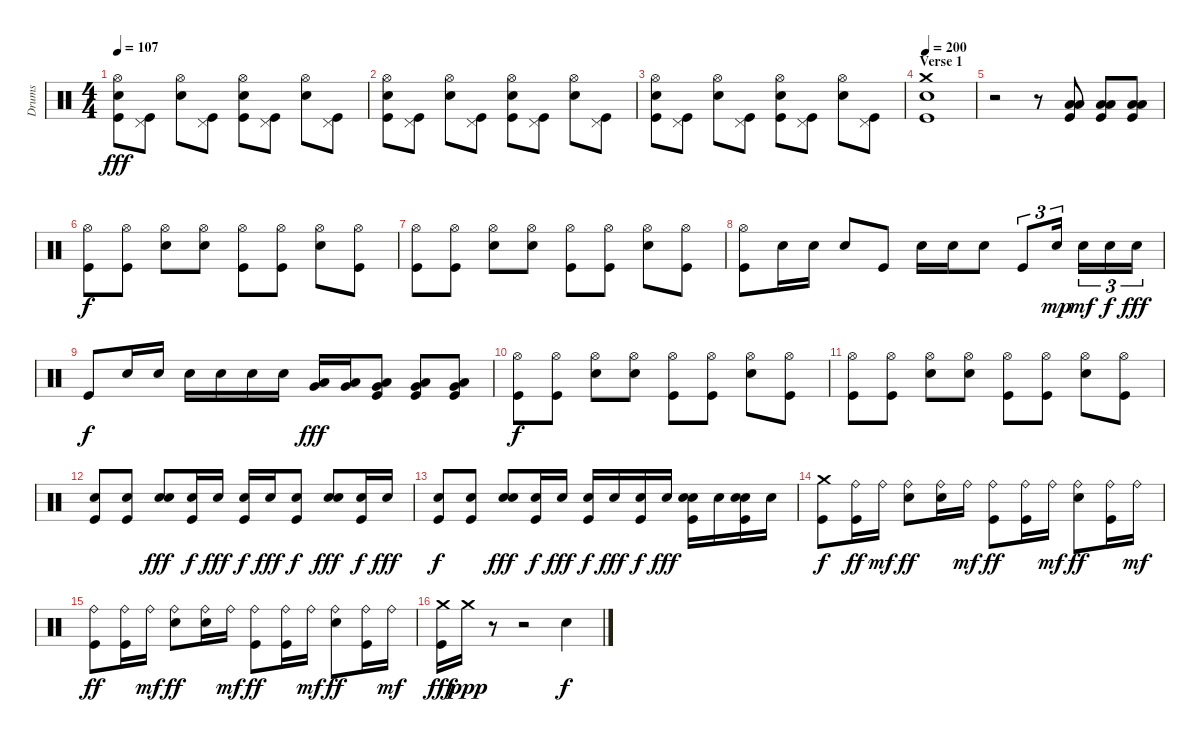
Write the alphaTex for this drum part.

\track ("Drums" "Drums") {instrument percussion}
\staff {score}
\articulation defaults
\ts (4 4)
\tempo 107
\clef neutral
\ks c
("Hi-Hat (open)" "Electric Snare (hit)" "Kick (hit)").8{dy fff} ("Pedal Hi-Hat (hit)" "Kick (hit)").8 ("Hi-Hat (open)" "Electric Snare (hit)").8 ("Pedal Hi-Hat (hit)" "Kick (hit)").8 ("Hi-Hat (open)" "Electric Snare (hit)" "Kick (hit)").8 ("Pedal Hi-Hat (hit)" "Kick (hit)").8 ("Hi-Hat (open)" "Electric Snare (hit)").8 ("Pedal Hi-Hat (hit)" "Kick (hit)").8 |
("Hi-Hat (open)" "Electric Snare (hit)" "Kick (hit)").8 ("Pedal Hi-Hat (hit)" "Kick (hit)").8 ("Hi-Hat (open)" "Electric Snare (hit)").8 ("Pedal Hi-Hat (hit)" "Kick (hit)").8 ("Hi-Hat (open)" "Electric Snare (hit)" "Kick (hit)").8 ("Pedal Hi-Hat (hit)" "Kick (hit)").8 ("Hi-Hat (open)" "Electric Snare (hit)").8 ("Pedal Hi-Hat (hit)" "Kick (hit)").8 |
("Hi-Hat (open)" "Electric Snare (hit)" "Kick (hit)").8 ("Pedal Hi-Hat (hit)" "Kick (hit)").8 ("Hi-Hat (open)" "Electric Snare (hit)").8 ("Pedal Hi-Hat (hit)" "Kick (hit)").8 ("Hi-Hat (open)" "Electric Snare (hit)" "Kick (hit)").8 ("Pedal Hi-Hat (hit)" "Kick (hit)").8 ("Hi-Hat (open)" "Electric Snare (hit)").8 ("Pedal Hi-Hat (hit)" "Kick (hit)").8 |
\section ("" "Verse 1")
\tempo 200
("Crash medium (hit)" "Electric Snare (hit)" "Kick (hit)").1 |
r.2 r.8 ("Low Tom (hit)" "Low Floor Tom (hit)" "Kick (hit)").8 ("Low Tom (hit)" "Low Floor Tom (hit)" "Kick (hit)").8 ("Low Tom (hit)" "Low Floor Tom (hit)" "Kick (hit)").8 |
("Hi-Hat (open)" "Kick (hit)").8{dy f} ("Hi-Hat (open)" "Kick (hit)").8 ("Hi-Hat (open)" "Electric Snare (hit)").8 ("Hi-Hat (open)" "Electric Snare (hit)").8 ("Hi-Hat (open)" "Kick (hit)").8 ("Hi-Hat (open)" "Kick (hit)").8 ("Hi-Hat (open)" "Electric Snare (hit)").8 ("Hi-Hat (open)" "Kick (hit)").8 |
("Hi-Hat (open)" "Kick (hit)").8 ("Hi-Hat (open)" "Kick (hit)").8 ("Hi-Hat (open)" "Electric Snare (hit)").8 ("Hi-Hat (open)" "Electric Snare (hit)").8 ("Hi-Hat (open)" "Kick (hit)").8 ("Hi-Hat (open)" "Kick (hit)").8 ("Hi-Hat (open)" "Electric Snare (hit)").8 ("Hi-Hat (open)" "Kick (hit)").8 |
("Hi-Hat (open)" "Kick (hit)").8 "Electric Snare (hit)".16 "Electric Snare (hit)".16 "Electric Snare (hit)".8 "Kick (hit)".8 "Electric Snare (hit)".16 "Electric Snare (hit)".16 "Electric Snare (hit)".8 "Kick (hit)".8{tu (3 2)} "Electric Snare (hit)".16{tu (3 2) dy mp} "Electric Snare (hit)".16{tu (3 2) dy mf} "Electric Snare (hit)".16{tu (3 2) dy f} "Electric Snare (hit)".16{tu (3 2) dy fff} |
"Kick (hit)".8{dy f} "Electric Snare (hit)".16 "Electric Snare (hit)".16 "Electric Snare (hit)".16 "Electric Snare (hit)".16 "Electric Snare (hit)".16 "Electric Snare (hit)".16 ("Low Tom (hit)" "Very Low Tom (hit)").16{dy fff} ("Low Tom (hit)" "Very Low Tom (hit)").16 ("Low Tom (hit)" "Very Low Tom (hit)" "Kick (hit)").8 ("Low Tom (hit)" "Very Low Tom (hit)" "Kick (hit)").8 ("Low Tom (hit)" "Very Low Tom (hit)" "Kick (hit)").8 |
("Hi-Hat (open)" "Kick (hit)").8{dy f} ("Hi-Hat (open)" "Kick (hit)").8 ("Hi-Hat (open)" "Electric Snare (hit)").8 ("Hi-Hat (open)" "Electric Snare (hit)").8 ("Hi-Hat (open)" "Kick (hit)").8 ("Hi-Hat (open)" "Kick (hit)").8 ("Hi-Hat (open)" "Electric Snare (hit)").8 ("Hi-Hat (open)" "Kick (hit)").8 |
("Hi-Hat (open)" "Kick (hit)").8 ("Hi-Hat (open)" "Kick (hit)").8 ("Hi-Hat (open)" "Electric Snare (hit)").8 ("Hi-Hat (open)" "Electric Snare (hit)").8 ("Hi-Hat (open)" "Kick (hit)").8 ("Hi-Hat (open)" "Kick (hit)").8 ("Hi-Hat (open)" "Electric Snare (hit)").8 ("Hi-Hat (open)" "Kick (hit)").8 |
("Snare (hit) 2" "Kick (hit)").8 ("Snare (hit) 2" "Kick (hit)").8 ("Snare (hit) 2" "Electric Snare (hit)").8{dy fff} ("Snare (hit) 2" "Kick (hit)").16{dy f} "Electric Snare (hit)".16{dy fff} ("Snare (hit) 2" "Kick (hit)").16{dy f} "Electric Snare (hit)".16{dy fff} ("Snare (hit) 2" "Kick (hit)").8{dy f} ("Snare (hit) 2" "Electric Snare (hit)").8{dy fff} ("Snare (hit) 2" "Kick (hit)").16{dy f} "Electric Snare (hit)".16{dy fff} |
("Snare (hit) 2" "Kick (hit)").8{dy f} ("Snare (hit) 2" "Kick (hit)").8 ("Snare (hit) 2" "Electric Snare (hit)").8{dy fff} ("Snare (hit) 2" "Kick (hit)").16{dy f} "Electric Snare (hit)".16{dy fff} ("Snare (hit) 2" "Kick (hit)").16{dy f} "Electric Snare (hit)".16{dy fff} ("Snare (hit) 2" "Kick (hit)").16{dy f} "Electric Snare (hit)".16{dy fff} ("Snare (hit) 2" "Electric Snare (hit)" "Kick (hit)").16 "Electric Snare (hit)".16 ("Snare (hit) 2" "Electric Snare (hit)" "Kick (hit)").16 "Electric Snare (hit)".16 |
("Crash medium (hit)" "Kick (hit)").8{dy f} ("Ride (bell)" "Kick (hit)").16{dy ff} "Ride (bell)".16{dy mf} ("Ride (bell)" "Electric Snare (hit)").8{dy ff} ("Ride (bell)" "Electric Snare (hit)").16 "Ride (bell)".16{dy mf} ("Ride (bell)" "Kick (hit)").8{dy ff} ("Ride (bell)" "Kick (hit)").16 "Ride (bell)".16{dy mf} ("Ride (bell)" "Electric Snare (hit)").8{dy ff} ("Ride (bell)" "Kick (hit)").16 "Ride (bell)".16{dy mf} |
("Ride (bell)" "Kick (hit)").8{dy ff} ("Ride (bell)" "Kick (hit)").16 "Ride (bell)".16{dy mf} ("Ride (bell)" "Electric Snare (hit)").8{dy ff} ("Ride (bell)" "Electric Snare (hit)").16 "Ride (bell)".16{dy mf} ("Ride (bell)" "Kick (hit)").8{dy ff} ("Ride (bell)" "Kick (hit)").16 "Ride (bell)".16{dy mf} ("Ride (bell)" "Electric Snare (hit)").8{dy ff} ("Ride (bell)" "Kick (hit)").16 "Ride (bell)".16{dy mf} |
("Crash medium (hit)" "Kick (hit)").16{dy fff} "Crash medium (hit)".16{dy ppp} r.8 r.2 "Electric Snare (hit)".4{dy f}
